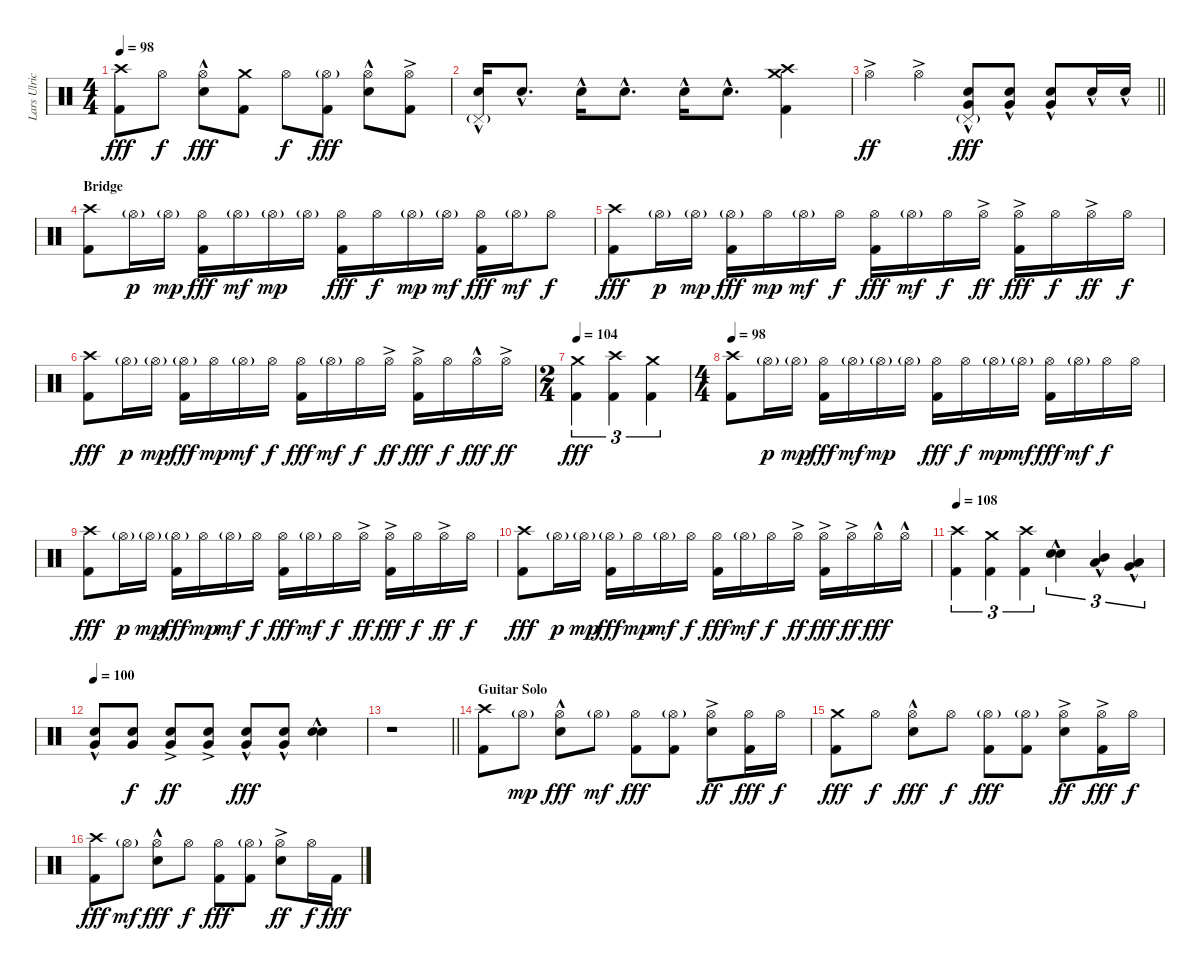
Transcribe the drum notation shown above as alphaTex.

\track ("Lars Ulrich (Drums)" "Lars Ulric") {instrument percussion}
\staff {score}
\articulation defaults
\ts (4 4)
\tempo 98
\clef neutral
\ks c
("Crash high (hit)" "Kick (hit) 2").8{dy fff} "Hi-Hat (open)".8{dy f} ("Hi-Hat (open)"{hac} "Electric Snare (hit)"{hac}).8{dy fff} ("Crash medium (hit)" "Kick (hit) 2").8 "Hi-Hat (open)".8{dy f} ("Hi-Hat (open)"{g} "Kick (hit) 2").8{dy fff} ("Hi-Hat (open)"{hac} "Electric Snare (hit)"{hac}).8 ("Hi-Hat (open)"{ac} "Kick (hit) 2").8 |
("Pedal Hi-Hat (hit)"{g} "Electric Snare (hit)"{hac}).16 "Electric Snare (hit)"{hac}.8{d} "Electric Snare (hit)"{hac}.16 "Electric Snare (hit)"{hac}.8{d} "Electric Snare (hit)"{hac}.16 "Electric Snare (hit)"{hac}.8{d} ("Crash medium (hit)" "Crash high (hit)" "Kick (hit) 2").4 |
\barLineRight lightlight "Hi-Hat (open)"{ac}.4{dy ff} "Hi-Hat (open)"{ac}.4
("Pedal Hi-Hat (hit)"{g} "Electric Snare (hit)"{hac} "Very Low Tom (hit)"{hac}).8{dy fff} ("Electric Snare (hit)"{hac} "Very Low Tom (hit)"{hac}).8 ("Electric Snare (hit)"{hac} "Very Low Tom (hit)"{hac}).8 "Electric Snare (hit)"{hac}.16 "Electric Snare (hit)"{hac}.16 |
\section ("" "Bridge")
("Crash high (hit)" "Kick (hit) 2").8 "Hi-Hat (open)"{g}.16{dy p} "Hi-Hat (open)"{g}.16{dy mp} ("Hi-Hat (open)" "Kick (hit) 2").16{dy fff} "Hi-Hat (open)"{g}.16{dy mf} "Hi-Hat (open)"{g}.16{dy mp} "Hi-Hat (open)"{g}.16 ("Hi-Hat (open)" "Kick (hit) 2").16{dy fff} "Hi-Hat (open)".16{dy f} "Hi-Hat (open)"{g}.16{dy mp} "Hi-Hat (open)"{g}.16{dy mf} ("Hi-Hat (open)" "Kick (hit) 2").16{dy fff} "Hi-Hat (open)"{g}.16{dy mf} "Hi-Hat (open)".8{dy f} |
("Crash high (hit)" "Kick (hit) 2").8{dy fff} "Hi-Hat (open)"{g}.16{dy p} "Hi-Hat (open)"{g}.16{dy mp} ("Hi-Hat (open)"{g} "Kick (hit) 2").16{dy fff} "Hi-Hat (open)".16{dy mp} "Hi-Hat (open)"{g}.16{dy mf} "Hi-Hat (open)".16{dy f} ("Hi-Hat (open)" "Kick (hit) 2").16{dy fff} "Hi-Hat (open)"{g}.16{dy mf} "Hi-Hat (open)".16{dy f} "Hi-Hat (open)"{ac}.16{dy ff} ("Hi-Hat (open)"{ac} "Kick (hit) 2").16{dy fff} "Hi-Hat (open)".16{dy f} "Hi-Hat (open)"{ac}.16{dy ff} "Hi-Hat (open)".16{dy f} |
("Crash high (hit)" "Kick (hit) 2").8{dy fff} "Hi-Hat (open)"{g}.16{dy p} "Hi-Hat (open)"{g}.16{dy mp} ("Hi-Hat (open)"{g} "Kick (hit) 2").16{dy fff} "Hi-Hat (open)".16{dy mp} "Hi-Hat (open)"{g}.16{dy mf} "Hi-Hat (open)".16{dy f} ("Hi-Hat (open)" "Kick (hit) 2").16{dy fff} "Hi-Hat (open)"{g}.16{dy mf} "Hi-Hat (open)".16{dy f} "Hi-Hat (open)"{ac}.16{dy ff} ("Hi-Hat (open)"{ac} "Kick (hit) 2").16{dy fff} "Hi-Hat (open)".16{dy f} "Hi-Hat (open)"{hac}.16{dy fff} "Hi-Hat (open)"{ac}.16{dy ff} |
\ts (2 4)
\tempo 104
("Crash medium (hit)" "Kick (hit) 2").4{tu (3 2) dy fff} ("Crash high (hit)" "Kick (hit) 2").4{tu (3 2)} ("Crash medium (hit)" "Kick (hit) 2").4{tu (3 2)} |
\ts (4 4)
\tempo 98
("Crash high (hit)" "Kick (hit) 2").8 "Hi-Hat (open)"{g}.16{dy p} "Hi-Hat (open)"{g}.16{dy mp} ("Hi-Hat (open)" "Kick (hit) 2").16{dy fff} "Hi-Hat (open)"{g}.16{dy mf} "Hi-Hat (open)"{g}.16{dy mp} "Hi-Hat (open)"{g}.16 ("Hi-Hat (open)" "Kick (hit) 2").16{dy fff} "Hi-Hat (open)".16{dy f} "Hi-Hat (open)"{g}.16{dy mp} "Hi-Hat (open)"{g}.16{dy mf} ("Hi-Hat (open)" "Kick (hit) 2").16{dy fff} "Hi-Hat (open)"{g}.16{dy mf} "Hi-Hat (open)".16{dy f} "Hi-Hat (open)".16 |
("Crash high (hit)" "Kick (hit) 2").8{dy fff} "Hi-Hat (open)"{g}.16{dy p} "Hi-Hat (open)"{g}.16{dy mp} ("Hi-Hat (open)"{g} "Kick (hit) 2").16{dy fff} "Hi-Hat (open)".16{dy mp} "Hi-Hat (open)"{g}.16{dy mf} "Hi-Hat (open)".16{dy f} ("Hi-Hat (open)" "Kick (hit) 2").16{dy fff} "Hi-Hat (open)"{g}.16{dy mf} "Hi-Hat (open)".16{dy f} "Hi-Hat (open)"{ac}.16{dy ff} ("Hi-Hat (open)"{ac} "Kick (hit) 2").16{dy fff} "Hi-Hat (open)".16{dy f} "Hi-Hat (open)"{ac}.16{dy ff} "Hi-Hat (open)".16{dy f} |
("Crash high (hit)" "Kick (hit) 2").8{dy fff} "Hi-Hat (open)"{g}.16{dy p} "Hi-Hat (open)"{g}.16{dy mp} ("Hi-Hat (open)"{g} "Kick (hit) 2").16{dy fff} "Hi-Hat (open)".16{dy mp} "Hi-Hat (open)"{g}.16{dy mf} "Hi-Hat (open)".16{dy f} ("Hi-Hat (open)" "Kick (hit) 2").16{dy fff} "Hi-Hat (open)"{g}.16{dy mf} "Hi-Hat (open)".16{dy f} "Hi-Hat (open)"{ac}.16{dy ff} ("Hi-Hat (open)"{ac} "Kick (hit) 2").16{dy fff} "Hi-Hat (open)"{ac}.16{dy ff} "Hi-Hat (open)"{hac}.16{dy fff} "Hi-Hat (open)"{hac}.16 |
\tempo 108
("Crash high (hit)" "Kick (hit) 2").4{tu (3 2)} ("Crash medium (hit)" "Kick (hit) 2").4{tu (3 2)} ("Crash high (hit)" "Kick (hit) 2").4{tu (3 2)} ("Electric Snare (hit)"{hac} "Electric Snare (hit)"{hac}).4{tu (3 2) bd 60} ("Mid Tom (hit)"{hac} "Low Tom (hit)"{hac}).4{tu (3 2)} ("Low Tom (hit)"{hac} "Very Low Tom (hit)"{hac}).4{tu (3 2)} |
\tempo 100
("Electric Snare (hit)"{hac} "Very Low Tom (hit)"{hac}).8 ("Electric Snare (hit)" "Very Low Tom (hit)").8{dy f} ("Electric Snare (hit)"{ac} "Very Low Tom (hit)"{ac}).8{dy ff} ("Electric Snare (hit)"{ac} "Very Low Tom (hit)"{ac}).8 ("Electric Snare (hit)"{hac} "Very Low Tom (hit)"{hac}).8{dy fff} ("Electric Snare (hit)"{hac} "Very Low Tom (hit)"{hac}).8 ("Electric Snare (hit)"{hac} "Electric Snare (hit)"{hac}).4{bd 60} |
\barLineRight lightlight
r.1 |
\section ("" "Guitar Solo")
("Crash high (hit)" "Kick (hit) 2").8 "Hi-Hat (open)"{g}.8{dy mp} ("Hi-Hat (open)"{hac} "Electric Snare (hit)"{hac}).8{dy fff} "Hi-Hat (open)"{g}.8{dy mf} ("Hi-Hat (open)" "Kick (hit) 2").8{dy fff} ("Hi-Hat (open)"{g} "Kick (hit) 2").8 ("Hi-Hat (open)"{ac} "Electric Snare (hit)"{ac}).8{dy ff} ("Hi-Hat (open)" "Kick (hit) 2").16{dy fff} "Hi-Hat (open)".16{dy f} |
("Crash medium (hit)" "Kick (hit) 2").8{dy fff} "Hi-Hat (open)".8{dy f} ("Hi-Hat (open)"{hac} "Electric Snare (hit)"{hac}).8{dy fff} "Hi-Hat (open)".8{dy f} ("Hi-Hat (open)"{g} "Kick (hit) 2").8{dy fff} ("Hi-Hat (open)"{g} "Kick (hit) 2").8 ("Hi-Hat (open)"{ac} "Electric Snare (hit)"{ac}).8{dy ff} ("Hi-Hat (open)"{ac} "Kick (hit) 2").16{dy fff} "Hi-Hat (open)".16{dy f} |
("Crash high (hit)" "Kick (hit) 2").8{dy fff} "Hi-Hat (open)"{g}.8{dy mf} ("Hi-Hat (open)"{hac} "Electric Snare (hit)"{hac}).8{dy fff} "Hi-Hat (open)".8{dy f} ("Hi-Hat (open)" "Kick (hit) 2").8{dy fff} ("Hi-Hat (open)"{g} "Kick (hit) 2").8 ("Hi-Hat (open)"{ac} "Electric Snare (hit)"{ac}).8{dy ff} "Hi-Hat (open)".16{dy f} "Kick (hit) 2".16{dy fff}
